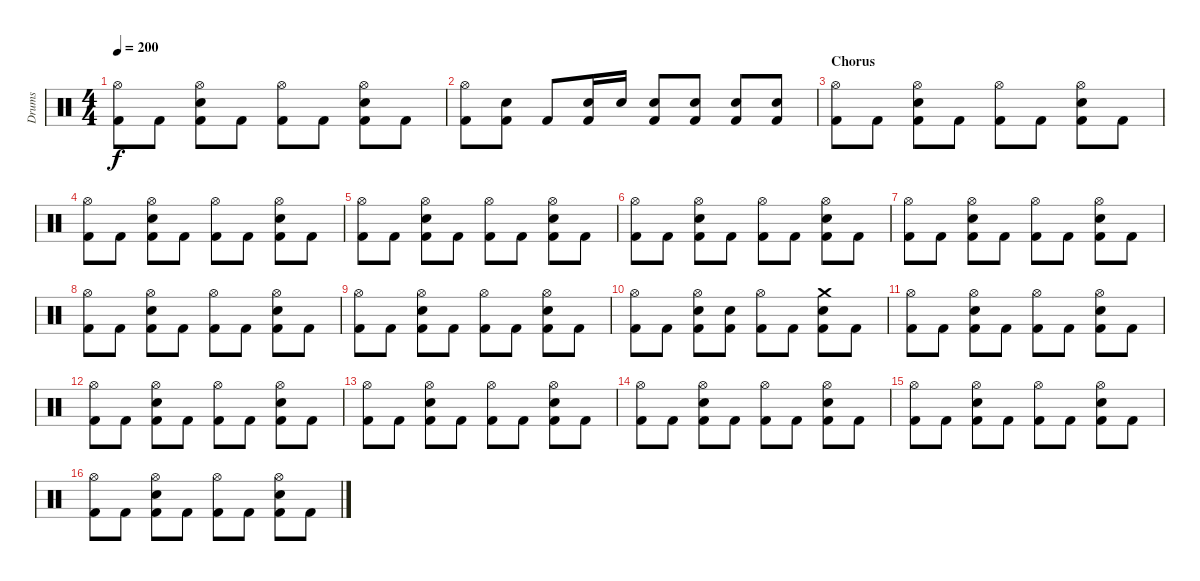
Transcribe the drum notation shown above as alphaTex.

\track ("Drums" "Drums") {instrument percussion}
\staff {score}
\articulation defaults
\ts (4 4)
\tempo 200
\clef neutral
\ks c
("Hi-Hat (open)" "Kick (hit) 2").8{dy f} "Kick (hit) 2".8 ("Hi-Hat (open)" "Snare (hit) 2" "Kick (hit) 2").8 "Kick (hit) 2".8 ("Hi-Hat (open)" "Kick (hit) 2").8 "Kick (hit) 2".8 ("Hi-Hat (open)" "Snare (hit) 2" "Kick (hit) 2").8 "Kick (hit) 2".8 |
("Hi-Hat (open)" "Kick (hit) 2").8 ("Snare (hit) 2" "Kick (hit) 2").8 "Kick (hit) 2".8 ("Snare (hit) 2" "Kick (hit) 2").16 "Snare (hit) 2".16 ("Snare (hit) 2" "Kick (hit) 2").8 ("Snare (hit) 2" "Kick (hit) 2").8 ("Snare (hit) 2" "Kick (hit) 2").8 ("Snare (hit) 2" "Kick (hit) 2").8 |
\section ("" "Chorus")
("Hi-Hat (open)" "Kick (hit) 2").8 "Kick (hit) 2".8 ("Hi-Hat (open)" "Snare (hit) 2" "Kick (hit) 2").8 "Kick (hit) 2".8 ("Hi-Hat (open)" "Kick (hit) 2").8 "Kick (hit) 2".8 ("Hi-Hat (open)" "Snare (hit) 2" "Kick (hit) 2").8 "Kick (hit) 2".8 |
("Hi-Hat (open)" "Kick (hit) 2").8 "Kick (hit) 2".8 ("Hi-Hat (open)" "Snare (hit) 2" "Kick (hit) 2").8 "Kick (hit) 2".8 ("Hi-Hat (open)" "Kick (hit) 2").8 "Kick (hit) 2".8 ("Hi-Hat (open)" "Snare (hit) 2" "Kick (hit) 2").8 "Kick (hit) 2".8 |
("Hi-Hat (open)" "Kick (hit) 2").8 "Kick (hit) 2".8 ("Hi-Hat (open)" "Snare (hit) 2" "Kick (hit) 2").8 "Kick (hit) 2".8 ("Hi-Hat (open)" "Kick (hit) 2").8 "Kick (hit) 2".8 ("Hi-Hat (open)" "Snare (hit) 2" "Kick (hit) 2").8 "Kick (hit) 2".8 |
("Hi-Hat (open)" "Kick (hit) 2").8 "Kick (hit) 2".8 ("Hi-Hat (open)" "Snare (hit) 2" "Kick (hit) 2").8 "Kick (hit) 2".8 ("Hi-Hat (open)" "Kick (hit) 2").8 "Kick (hit) 2".8 ("Hi-Hat (open)" "Snare (hit) 2" "Kick (hit) 2").8 "Kick (hit) 2".8 |
("Hi-Hat (open)" "Kick (hit) 2").8 "Kick (hit) 2".8 ("Hi-Hat (open)" "Snare (hit) 2" "Kick (hit) 2").8 "Kick (hit) 2".8 ("Hi-Hat (open)" "Kick (hit) 2").8 "Kick (hit) 2".8 ("Hi-Hat (open)" "Snare (hit) 2" "Kick (hit) 2").8 "Kick (hit) 2".8 |
("Hi-Hat (open)" "Kick (hit) 2").8 "Kick (hit) 2".8 ("Hi-Hat (open)" "Snare (hit) 2" "Kick (hit) 2").8 "Kick (hit) 2".8 ("Hi-Hat (open)" "Kick (hit) 2").8 "Kick (hit) 2".8 ("Hi-Hat (open)" "Snare (hit) 2" "Kick (hit) 2").8 "Kick (hit) 2".8 |
("Hi-Hat (open)" "Kick (hit) 2").8 "Kick (hit) 2".8 ("Hi-Hat (open)" "Snare (hit) 2" "Kick (hit) 2").8 "Kick (hit) 2".8 ("Hi-Hat (open)" "Kick (hit) 2").8 "Kick (hit) 2".8 ("Hi-Hat (open)" "Snare (hit) 2" "Kick (hit) 2").8 "Kick (hit) 2".8 |
("Hi-Hat (open)" "Kick (hit) 2").8 "Kick (hit) 2".8 ("Hi-Hat (open)" "Snare (hit) 2" "Kick (hit) 2").8 ("Snare (hit) 2" "Kick (hit) 2").8 ("Hi-Hat (open)" "Kick (hit) 2").8 "Kick (hit) 2".8 ("Crash medium (hit)" "Snare (hit) 2" "Kick (hit) 2").8 "Kick (hit) 2".8 |
("Hi-Hat (open)" "Kick (hit) 2").8 "Kick (hit) 2".8 ("Hi-Hat (open)" "Snare (hit) 2" "Kick (hit) 2").8 "Kick (hit) 2".8 ("Hi-Hat (open)" "Kick (hit) 2").8 "Kick (hit) 2".8 ("Hi-Hat (open)" "Snare (hit) 2" "Kick (hit) 2").8 "Kick (hit) 2".8 |
("Hi-Hat (open)" "Kick (hit) 2").8 "Kick (hit) 2".8 ("Hi-Hat (open)" "Snare (hit) 2" "Kick (hit) 2").8 "Kick (hit) 2".8 ("Hi-Hat (open)" "Kick (hit) 2").8 "Kick (hit) 2".8 ("Hi-Hat (open)" "Snare (hit) 2" "Kick (hit) 2").8 "Kick (hit) 2".8 |
("Hi-Hat (open)" "Kick (hit) 2").8 "Kick (hit) 2".8 ("Hi-Hat (open)" "Snare (hit) 2" "Kick (hit) 2").8 "Kick (hit) 2".8 ("Hi-Hat (open)" "Kick (hit) 2").8 "Kick (hit) 2".8 ("Hi-Hat (open)" "Snare (hit) 2" "Kick (hit) 2").8 "Kick (hit) 2".8 |
("Hi-Hat (open)" "Kick (hit) 2").8 "Kick (hit) 2".8 ("Hi-Hat (open)" "Snare (hit) 2" "Kick (hit) 2").8 "Kick (hit) 2".8 ("Hi-Hat (open)" "Kick (hit) 2").8 "Kick (hit) 2".8 ("Hi-Hat (open)" "Snare (hit) 2" "Kick (hit) 2").8 "Kick (hit) 2".8 |
("Hi-Hat (open)" "Kick (hit) 2").8 "Kick (hit) 2".8 ("Hi-Hat (open)" "Snare (hit) 2" "Kick (hit) 2").8 "Kick (hit) 2".8 ("Hi-Hat (open)" "Kick (hit) 2").8 "Kick (hit) 2".8 ("Hi-Hat (open)" "Snare (hit) 2" "Kick (hit) 2").8 "Kick (hit) 2".8 |
("Hi-Hat (open)" "Kick (hit) 2").8 "Kick (hit) 2".8 ("Hi-Hat (open)" "Snare (hit) 2" "Kick (hit) 2").8 "Kick (hit) 2".8 ("Hi-Hat (open)" "Kick (hit) 2").8 "Kick (hit) 2".8 ("Hi-Hat (open)" "Snare (hit) 2" "Kick (hit) 2").8 "Kick (hit) 2".8
